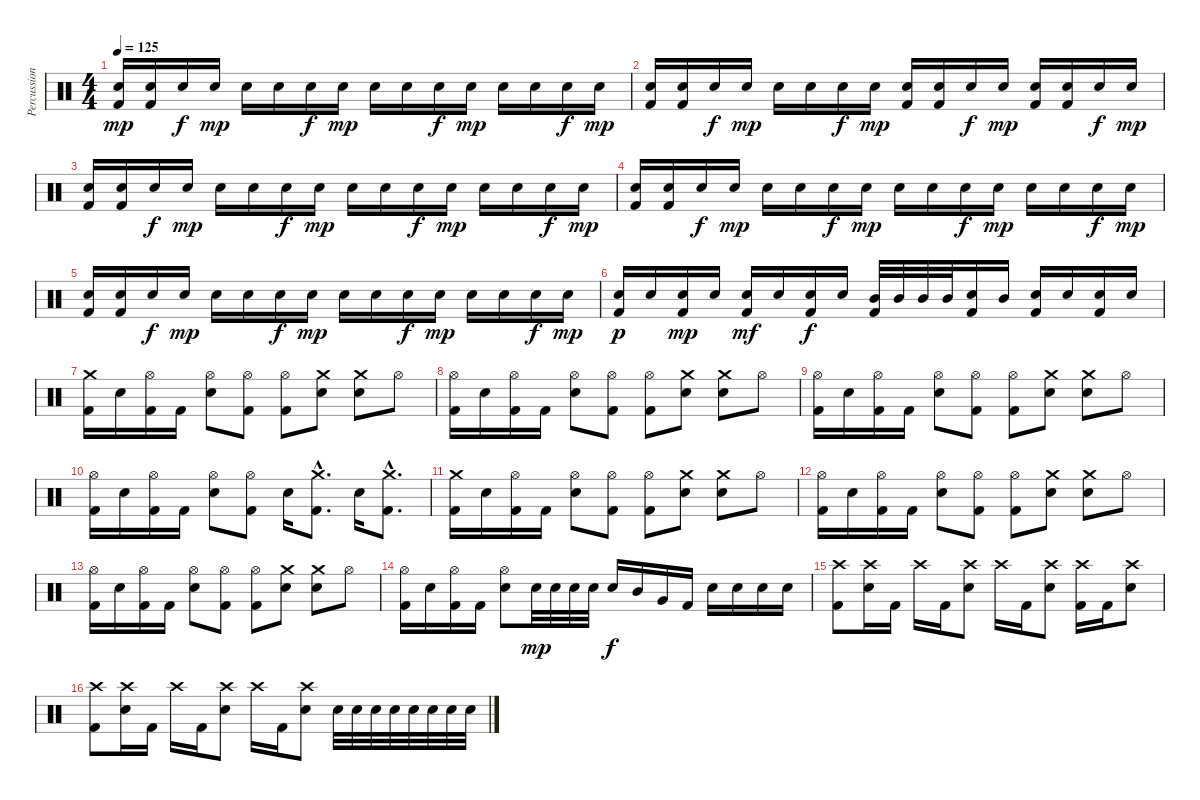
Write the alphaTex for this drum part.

\track ("Percussion" "Percussion") {instrument percussion}
\staff {score}
\articulation defaults
\ts (4 4)
\tempo 125
\clef neutral
\ks c
("Snare (hit) 2" "Kick (hit) 2").16{dy mp} ("Snare (hit) 2" "Kick (hit) 2").16 "Snare (hit) 2".16{dy f} "Snare (hit) 2".16{dy mp} "Snare (hit) 2".16 "Snare (hit) 2".16 "Snare (hit) 2".16{dy f} "Snare (hit) 2".16{dy mp} "Snare (hit) 2".16 "Snare (hit) 2".16 "Snare (hit) 2".16{dy f} "Snare (hit) 2".16{dy mp} "Snare (hit) 2".16 "Snare (hit) 2".16 "Snare (hit) 2".16{dy f} "Snare (hit) 2".16{dy mp} |
("Snare (hit) 2" "Kick (hit) 2").16 ("Snare (hit) 2" "Kick (hit) 2").16 "Snare (hit) 2".16{dy f} "Snare (hit) 2".16{dy mp} "Snare (hit) 2".16 "Snare (hit) 2".16 "Snare (hit) 2".16{dy f} "Snare (hit) 2".16{dy mp} ("Snare (hit) 2" "Kick (hit) 2").16 ("Snare (hit) 2" "Kick (hit) 2").16 "Snare (hit) 2".16{dy f} "Snare (hit) 2".16{dy mp} ("Snare (hit) 2" "Kick (hit) 2").16 ("Snare (hit) 2" "Kick (hit) 2").16 "Snare (hit) 2".16{dy f} "Snare (hit) 2".16{dy mp} |
("Snare (hit) 2" "Kick (hit) 2").16 ("Snare (hit) 2" "Kick (hit) 2").16 "Snare (hit) 2".16{dy f} "Snare (hit) 2".16{dy mp} "Snare (hit) 2".16 "Snare (hit) 2".16 "Snare (hit) 2".16{dy f} "Snare (hit) 2".16{dy mp} "Snare (hit) 2".16 "Snare (hit) 2".16 "Snare (hit) 2".16{dy f} "Snare (hit) 2".16{dy mp} "Snare (hit) 2".16 "Snare (hit) 2".16 "Snare (hit) 2".16{dy f} "Snare (hit) 2".16{dy mp} |
("Snare (hit) 2" "Kick (hit) 2").16 ("Snare (hit) 2" "Kick (hit) 2").16 "Snare (hit) 2".16{dy f} "Snare (hit) 2".16{dy mp} "Snare (hit) 2".16 "Snare (hit) 2".16 "Snare (hit) 2".16{dy f} "Snare (hit) 2".16{dy mp} "Snare (hit) 2".16 "Snare (hit) 2".16 "Snare (hit) 2".16{dy f} "Snare (hit) 2".16{dy mp} "Snare (hit) 2".16 "Snare (hit) 2".16 "Snare (hit) 2".16{dy f} "Snare (hit) 2".16{dy mp} |
("Snare (hit) 2" "Kick (hit) 2").16 ("Snare (hit) 2" "Kick (hit) 2").16 "Snare (hit) 2".16{dy f} "Snare (hit) 2".16{dy mp} "Snare (hit) 2".16 "Snare (hit) 2".16 "Snare (hit) 2".16{dy f} "Snare (hit) 2".16{dy mp} "Snare (hit) 2".16 "Snare (hit) 2".16 "Snare (hit) 2".16{dy f} "Snare (hit) 2".16{dy mp} "Snare (hit) 2".16 "Snare (hit) 2".16 "Snare (hit) 2".16{dy f} "Snare (hit) 2".16{dy mp} |
("Snare (hit) 2" "Kick (hit) 2").16{dy p} "Snare (hit) 2".16 ("Snare (hit) 2" "Kick (hit) 2").16{dy mp} "Snare (hit) 2".16 ("Snare (hit) 2" "Kick (hit) 2").16{dy mf} "Snare (hit) 2".16 ("Snare (hit) 2" "Kick (hit) 2").16{dy f} "Snare (hit) 2".16 ("Mid Tom (hit)" "Kick (hit) 2").32 "Mid Tom (hit)".32 "Mid Tom (hit)".32 "Mid Tom (hit)".32 ("Snare (hit) 2" "Kick (hit) 2").16 "Mid Tom (hit)".16 ("Snare (hit) 2" "Kick (hit) 2").16 "Snare (hit) 2".16 ("Snare (hit) 2" "Kick (hit) 2").16 "Snare (hit) 2".16 |
("Crash medium (hit)" "Kick (hit) 2").16 "Snare (hit) 2".16 ("Hi-Hat (open)" "Kick (hit) 2").16 "Kick (hit) 2".16 ("Hi-Hat (open)" "Snare (hit) 2").8 ("Hi-Hat (open)" "Kick (hit) 2").8 ("Hi-Hat (open)" "Kick (hit) 2").8 ("Crash medium (hit)" "Snare (hit) 2").8 ("Crash medium (hit)" "Snare (hit) 2").8 "Hi-Hat (open)".8 |
("Hi-Hat (open)" "Kick (hit) 2").16 "Snare (hit) 2".16 ("Hi-Hat (open)" "Kick (hit) 2").16 "Kick (hit) 2".16 ("Hi-Hat (open)" "Snare (hit) 2").8 ("Hi-Hat (open)" "Kick (hit) 2").8 ("Hi-Hat (open)" "Kick (hit) 2").8 ("Crash medium (hit)" "Snare (hit) 2").8 ("Crash medium (hit)" "Snare (hit) 2").8 "Hi-Hat (open)".8 |
("Hi-Hat (open)" "Kick (hit) 2").16 "Snare (hit) 2".16 ("Hi-Hat (open)" "Kick (hit) 2").16 "Kick (hit) 2".16 ("Hi-Hat (open)" "Snare (hit) 2").8 ("Hi-Hat (open)" "Kick (hit) 2").8 ("Hi-Hat (open)" "Kick (hit) 2").8 ("Crash medium (hit)" "Snare (hit) 2").8 ("Crash medium (hit)" "Snare (hit) 2").8 "Hi-Hat (open)".8 |
("Hi-Hat (open)" "Kick (hit) 2").16 "Snare (hit) 2".16 ("Hi-Hat (open)" "Kick (hit) 2").16 "Kick (hit) 2".16 ("Hi-Hat (open)" "Snare (hit) 2").8 ("Hi-Hat (open)" "Kick (hit) 2").8 "Snare (hit) 2".16 ("Crash medium (hit)"{hac} "Kick (hit) 2"{hac}).8{d} "Snare (hit) 2".16 ("Crash medium (hit)"{hac} "Kick (hit) 2"{hac}).8{d} |
("Crash medium (hit)" "Kick (hit) 2").16 "Snare (hit) 2".16 ("Hi-Hat (open)" "Kick (hit) 2").16 "Kick (hit) 2".16 ("Hi-Hat (open)" "Snare (hit) 2").8 ("Hi-Hat (open)" "Kick (hit) 2").8 ("Hi-Hat (open)" "Kick (hit) 2").8 ("Crash medium (hit)" "Snare (hit) 2").8 ("Crash medium (hit)" "Snare (hit) 2").8 "Hi-Hat (open)".8 |
("Hi-Hat (open)" "Kick (hit) 2").16 "Snare (hit) 2".16 ("Hi-Hat (open)" "Kick (hit) 2").16 "Kick (hit) 2".16 ("Hi-Hat (open)" "Snare (hit) 2").8 ("Hi-Hat (open)" "Kick (hit) 2").8 ("Hi-Hat (open)" "Kick (hit) 2").8 ("Crash medium (hit)" "Snare (hit) 2").8 ("Crash medium (hit)" "Snare (hit) 2").8 "Hi-Hat (open)".8 |
("Hi-Hat (open)" "Kick (hit) 2").16 "Snare (hit) 2".16 ("Hi-Hat (open)" "Kick (hit) 2").16 "Kick (hit) 2".16 ("Hi-Hat (open)" "Snare (hit) 2").8 ("Hi-Hat (open)" "Kick (hit) 2").8 ("Hi-Hat (open)" "Kick (hit) 2").8 ("Crash medium (hit)" "Snare (hit) 2").8 ("Crash medium (hit)" "Snare (hit) 2").8 "Hi-Hat (open)".8 |
("Hi-Hat (open)" "Kick (hit) 2").16 "Snare (hit) 2".16 ("Hi-Hat (open)" "Kick (hit) 2").16 "Kick (hit) 2".16 ("Hi-Hat (open)" "Snare (hit) 2").8 "Snare (hit) 2".32{dy mp} "Snare (hit) 2".32 "Snare (hit) 2".32 "Snare (hit) 2".32 "Snare (hit) 2".16{dy f} "Mid Tom (hit)".16 "Very Low Tom (hit)".16 "Kick (hit) 2".16 "Snare (hit) 2".16 "Snare (hit) 2".16 "Snare (hit) 2".16 "Snare (hit) 2".16 |
("Crash high (hit)" "Kick (hit) 2").8 ("Crash high (hit)" "Snare (hit) 2").16 "Kick (hit) 2".16 "Crash high (hit)".16 "Kick (hit) 2".16 ("Crash high (hit)" "Snare (hit) 2").8 "Crash high (hit)".16 "Kick (hit) 2".16 ("Crash high (hit)" "Snare (hit) 2").8 ("Crash high (hit)" "Kick (hit) 2").16 "Kick (hit) 2".16 ("Crash high (hit)" "Snare (hit) 2").8 |
("Crash high (hit)" "Kick (hit) 2").8 ("Crash high (hit)" "Snare (hit) 2").16 "Kick (hit) 2".16 "Crash high (hit)".16 "Kick (hit) 2".16 ("Crash high (hit)" "Snare (hit) 2").8 "Crash high (hit)".16 "Kick (hit) 2".16 ("Crash high (hit)" "Snare (hit) 2").8 "Snare (hit) 2".32 "Snare (hit) 2".32 "Snare (hit) 2".32 "Snare (hit) 2".32 "Snare (hit) 2".32 "Snare (hit) 2".32 "Snare (hit) 2".32 "Snare (hit) 2".32
